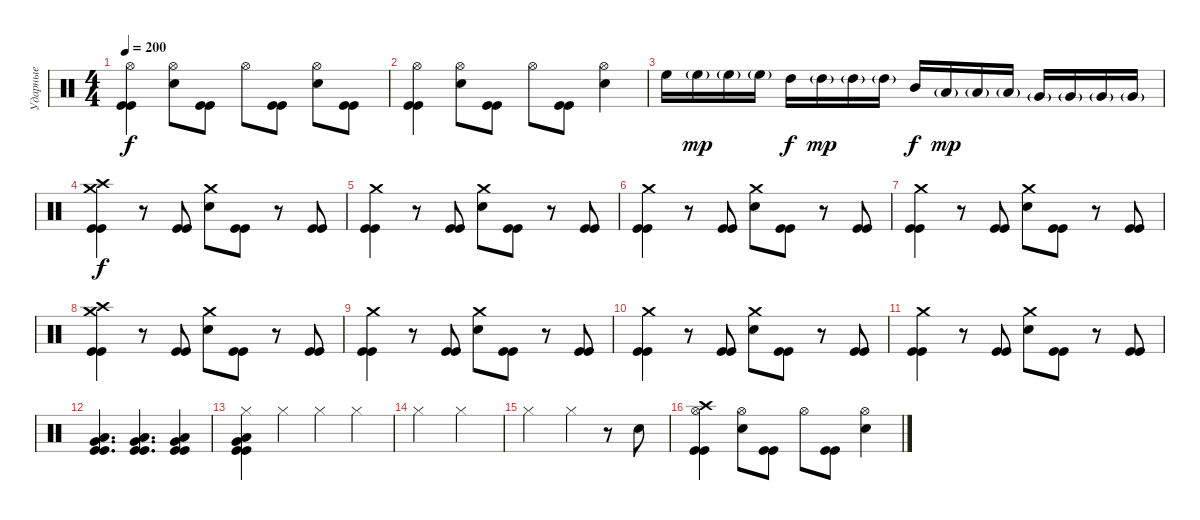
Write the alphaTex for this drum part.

\track ("Ударные" "Ударные") {instrument percussion}
\staff {score}
\articulation defaults
\ts (4 4)
\tempo 200
\clef neutral
\ks c
("Hi-Hat (open)" "Kick (hit)" "Kick (hit)").4{dy f} ("Hi-Hat (open)" "Electric Snare (hit)").8 ("Kick (hit)" "Kick (hit)").8 "Hi-Hat (open)".8 ("Kick (hit)" "Kick (hit)").8 ("Hi-Hat (open)" "Electric Snare (hit)").8 ("Kick (hit)" "Kick (hit)").8 |
("Hi-Hat (open)" "Kick (hit)" "Kick (hit)").4 ("Hi-Hat (open)" "Electric Snare (hit)").8 ("Kick (hit)" "Kick (hit)").8 "Hi-Hat (open)".8 ("Kick (hit)" "Kick (hit)").8 ("Hi-Hat (open)" "Electric Snare (hit)").4 |
"High Floor Tom (hit)".16 "High Floor Tom (hit)"{g}.16{dy mp} "High Floor Tom (hit)"{g}.16 "High Floor Tom (hit)"{g}.16 "High Tom (hit)".16{dy f} "High Tom (hit)"{g}.16{dy mp} "High Tom (hit)"{g}.16 "High Tom (hit)"{g}.16 "Mid Tom (hit)".16{dy f} "Low Tom (hit)"{g}.16{dy mp} "Low Tom (hit)"{g}.16 "Low Tom (hit)"{g}.16 "Very Low Tom (hit)"{g}.16 "Very Low Tom (hit)"{g}.16 "Very Low Tom (hit)"{g}.16 "Very Low Tom (hit)"{g}.16 |
("Crash high (hit)" "Crash medium (hit)" "Kick (hit)" "Kick (hit)").4{dy f} r.8 ("Kick (hit)" "Kick (hit)").8 ("Crash medium (hit)" "Electric Snare (hit)").8 ("Kick (hit)" "Kick (hit)").8 r.8 ("Kick (hit)" "Kick (hit)").8 |
("Crash medium (hit)" "Kick (hit)" "Kick (hit)").4 r.8 ("Kick (hit)" "Kick (hit)").8 ("Crash medium (hit)" "Electric Snare (hit)").8 ("Kick (hit)" "Kick (hit)").8 r.8 ("Kick (hit)" "Kick (hit)").8 |
("Crash medium (hit)" "Kick (hit)" "Kick (hit)").4 r.8 ("Kick (hit)" "Kick (hit)").8 ("Crash medium (hit)" "Electric Snare (hit)").8 ("Kick (hit)" "Kick (hit)").8 r.8 ("Kick (hit)" "Kick (hit)").8 |
("Crash medium (hit)" "Kick (hit)" "Kick (hit)").4 r.8 ("Kick (hit)" "Kick (hit)").8 ("Crash medium (hit)" "Electric Snare (hit)").8 ("Kick (hit)" "Kick (hit)").8 r.8 ("Kick (hit)" "Kick (hit)").8 |
("Crash high (hit)" "Crash medium (hit)" "Kick (hit)" "Kick (hit)").4 r.8 ("Kick (hit)" "Kick (hit)").8 ("Crash medium (hit)" "Electric Snare (hit)").8 ("Kick (hit)" "Kick (hit)").8 r.8 ("Kick (hit)" "Kick (hit)").8 |
("Crash medium (hit)" "Kick (hit)" "Kick (hit)").4 r.8 ("Kick (hit)" "Kick (hit)").8 ("Crash medium (hit)" "Electric Snare (hit)").8 ("Kick (hit)" "Kick (hit)").8 r.8 ("Kick (hit)" "Kick (hit)").8 |
("Crash medium (hit)" "Kick (hit)" "Kick (hit)").4 r.8 ("Kick (hit)" "Kick (hit)").8 ("Crash medium (hit)" "Electric Snare (hit)").8 ("Kick (hit)" "Kick (hit)").8 r.8 ("Kick (hit)" "Kick (hit)").8 |
("Crash medium (hit)" "Kick (hit)" "Kick (hit)").4 r.8 ("Kick (hit)" "Kick (hit)").8 ("Crash medium (hit)" "Electric Snare (hit)").8 ("Kick (hit)" "Kick (hit)").8 r.8 ("Kick (hit)" "Kick (hit)").8 |
("Low Floor Tom (hit)" "Very Low Tom (hit)" "Kick (hit)" "Kick (hit)").4{d} ("Low Floor Tom (hit)" "Very Low Tom (hit)" "Kick (hit)" "Kick (hit)").4{d} ("Low Floor Tom (hit)" "Very Low Tom (hit)" "Kick (hit)" "Kick (hit)").4 |
("Hi-Hat (closed)" "Low Floor Tom (hit)" "Very Low Tom (hit)" "Kick (hit)" "Kick (hit)").4 "Hi-Hat (closed)".4 "Hi-Hat (closed)".4 "Hi-Hat (closed)".4 |
"Hi-Hat (closed)".2 "Hi-Hat (closed)".2 |
"Hi-Hat (closed)".2 "Hi-Hat (closed)".4 r.8 "Electric Snare (hit)".8 |
("Crash high (hit)" "Hi-Hat (open)" "Kick (hit)" "Kick (hit)").4 ("Hi-Hat (open)" "Electric Snare (hit)").8 ("Kick (hit)" "Kick (hit)").8 "Hi-Hat (open)".8 ("Kick (hit)" "Kick (hit)").8 ("Hi-Hat (open)" "Electric Snare (hit)").4
